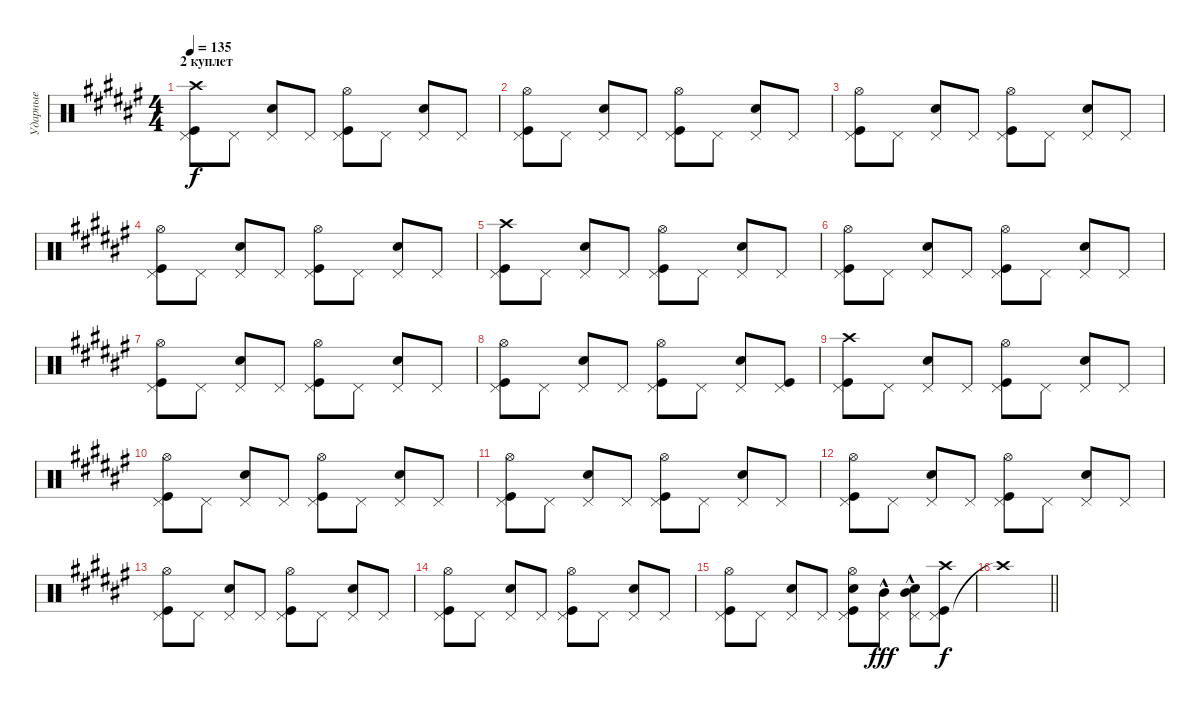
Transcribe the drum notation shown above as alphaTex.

\track ("Ударные" "Ударные") {instrument percussion}
\staff {score}
\articulation defaults
\ts (4 4)
\section ("" "2 куплет")
\tempo 135
\clef neutral
\ks d#minor
("Pedal Hi-Hat (hit)" "Kick (hit)" "Crash high (hit)").8{dy f} "Pedal Hi-Hat (hit)".8 ("Pedal Hi-Hat (hit)" "Snare (hit) 2").8 "Pedal Hi-Hat (hit)".8 ("Pedal Hi-Hat (hit)" "Kick (hit)" "Hi-Hat (open)").8 "Pedal Hi-Hat (hit)".8 ("Pedal Hi-Hat (hit)" "Snare (hit) 2").8 "Pedal Hi-Hat (hit)".8 |
("Pedal Hi-Hat (hit)" "Kick (hit)" "Hi-Hat (open)").8 "Pedal Hi-Hat (hit)".8 ("Pedal Hi-Hat (hit)" "Snare (hit) 2").8 "Pedal Hi-Hat (hit)".8 ("Pedal Hi-Hat (hit)" "Kick (hit)" "Hi-Hat (open)").8 "Pedal Hi-Hat (hit)".8 ("Pedal Hi-Hat (hit)" "Snare (hit) 2").8 "Pedal Hi-Hat (hit)".8 |
("Pedal Hi-Hat (hit)" "Kick (hit)" "Hi-Hat (open)").8 "Pedal Hi-Hat (hit)".8 ("Pedal Hi-Hat (hit)" "Snare (hit) 2").8 "Pedal Hi-Hat (hit)".8 ("Pedal Hi-Hat (hit)" "Kick (hit)" "Hi-Hat (open)").8 "Pedal Hi-Hat (hit)".8 ("Pedal Hi-Hat (hit)" "Snare (hit) 2").8 "Pedal Hi-Hat (hit)".8 |
("Pedal Hi-Hat (hit)" "Kick (hit)" "Hi-Hat (open)").8 "Pedal Hi-Hat (hit)".8 ("Pedal Hi-Hat (hit)" "Snare (hit) 2").8 "Pedal Hi-Hat (hit)".8 ("Pedal Hi-Hat (hit)" "Kick (hit)" "Hi-Hat (open)").8 "Pedal Hi-Hat (hit)".8 ("Pedal Hi-Hat (hit)" "Snare (hit) 2").8 "Pedal Hi-Hat (hit)".8 |
("Pedal Hi-Hat (hit)" "Kick (hit)" "Crash high (hit)").8 "Pedal Hi-Hat (hit)".8 ("Pedal Hi-Hat (hit)" "Snare (hit) 2").8 "Pedal Hi-Hat (hit)".8 ("Pedal Hi-Hat (hit)" "Kick (hit)" "Hi-Hat (open)").8 "Pedal Hi-Hat (hit)".8 ("Pedal Hi-Hat (hit)" "Snare (hit) 2").8 "Pedal Hi-Hat (hit)".8 |
("Pedal Hi-Hat (hit)" "Kick (hit)" "Hi-Hat (open)").8 "Pedal Hi-Hat (hit)".8 ("Pedal Hi-Hat (hit)" "Snare (hit) 2").8 "Pedal Hi-Hat (hit)".8 ("Pedal Hi-Hat (hit)" "Kick (hit)" "Hi-Hat (open)").8 "Pedal Hi-Hat (hit)".8 ("Pedal Hi-Hat (hit)" "Snare (hit) 2").8 "Pedal Hi-Hat (hit)".8 |
("Pedal Hi-Hat (hit)" "Kick (hit)" "Hi-Hat (open)").8 "Pedal Hi-Hat (hit)".8 ("Pedal Hi-Hat (hit)" "Snare (hit) 2").8 "Pedal Hi-Hat (hit)".8 ("Pedal Hi-Hat (hit)" "Kick (hit)" "Hi-Hat (open)").8 "Pedal Hi-Hat (hit)".8 ("Pedal Hi-Hat (hit)" "Snare (hit) 2").8 "Pedal Hi-Hat (hit)".8 |
("Pedal Hi-Hat (hit)" "Kick (hit)" "Hi-Hat (open)").8 "Pedal Hi-Hat (hit)".8 ("Pedal Hi-Hat (hit)" "Snare (hit) 2").8 "Pedal Hi-Hat (hit)".8 ("Pedal Hi-Hat (hit)" "Kick (hit)" "Hi-Hat (open)").8 "Pedal Hi-Hat (hit)".8 ("Pedal Hi-Hat (hit)" "Snare (hit) 2").8 ("Pedal Hi-Hat (hit)" "Kick (hit)").8 |
("Pedal Hi-Hat (hit)" "Kick (hit)" "Crash high (hit)").8 "Pedal Hi-Hat (hit)".8 ("Pedal Hi-Hat (hit)" "Snare (hit) 2").8 "Pedal Hi-Hat (hit)".8 ("Pedal Hi-Hat (hit)" "Kick (hit)" "Hi-Hat (open)").8 "Pedal Hi-Hat (hit)".8 ("Pedal Hi-Hat (hit)" "Snare (hit) 2").8 "Pedal Hi-Hat (hit)".8 |
("Pedal Hi-Hat (hit)" "Kick (hit)" "Hi-Hat (open)").8 "Pedal Hi-Hat (hit)".8 ("Pedal Hi-Hat (hit)" "Snare (hit) 2").8 "Pedal Hi-Hat (hit)".8 ("Pedal Hi-Hat (hit)" "Kick (hit)" "Hi-Hat (open)").8 "Pedal Hi-Hat (hit)".8 ("Pedal Hi-Hat (hit)" "Snare (hit) 2").8 "Pedal Hi-Hat (hit)".8 |
("Pedal Hi-Hat (hit)" "Kick (hit)" "Hi-Hat (open)").8 "Pedal Hi-Hat (hit)".8 ("Pedal Hi-Hat (hit)" "Snare (hit) 2").8 "Pedal Hi-Hat (hit)".8 ("Pedal Hi-Hat (hit)" "Kick (hit)" "Hi-Hat (open)").8 "Pedal Hi-Hat (hit)".8 ("Pedal Hi-Hat (hit)" "Snare (hit) 2").8 "Pedal Hi-Hat (hit)".8 |
("Pedal Hi-Hat (hit)" "Kick (hit)" "Hi-Hat (open)").8 "Pedal Hi-Hat (hit)".8 ("Pedal Hi-Hat (hit)" "Snare (hit) 2").8 "Pedal Hi-Hat (hit)".8 ("Pedal Hi-Hat (hit)" "Kick (hit)" "Hi-Hat (open)").8 "Pedal Hi-Hat (hit)".8 ("Pedal Hi-Hat (hit)" "Snare (hit) 2").8 "Pedal Hi-Hat (hit)".8 |
("Pedal Hi-Hat (hit)" "Kick (hit)" "Hi-Hat (open)").8 "Pedal Hi-Hat (hit)".8 ("Pedal Hi-Hat (hit)" "Snare (hit) 2").8 "Pedal Hi-Hat (hit)".8 ("Pedal Hi-Hat (hit)" "Kick (hit)" "Hi-Hat (open)").8 "Pedal Hi-Hat (hit)".8 ("Pedal Hi-Hat (hit)" "Snare (hit) 2").8 "Pedal Hi-Hat (hit)".8 |
("Pedal Hi-Hat (hit)" "Kick (hit)" "Hi-Hat (open)").8 "Pedal Hi-Hat (hit)".8 ("Pedal Hi-Hat (hit)" "Snare (hit) 2").8 "Pedal Hi-Hat (hit)".8 ("Pedal Hi-Hat (hit)" "Kick (hit)" "Hi-Hat (open)").8 "Pedal Hi-Hat (hit)".8 ("Pedal Hi-Hat (hit)" "Snare (hit) 2").8 "Pedal Hi-Hat (hit)".8 |
("Pedal Hi-Hat (hit)" "Kick (hit)" "Hi-Hat (open)").8 "Pedal Hi-Hat (hit)".8 ("Pedal Hi-Hat (hit)" "Snare (hit) 2").8 "Pedal Hi-Hat (hit)".8 ("Pedal Hi-Hat (hit)" "Kick (hit)" "Hi-Hat (open)" "Snare (hit) 2").8 ("Pedal Hi-Hat (hit)" "Mid Tom (hit)"{hac}).8{dy fff} ("Pedal Hi-Hat (hit)" "Snare (hit) 2" "Mid Tom (hit)"{hac}).8 ("Pedal Hi-Hat (hit)" "Crash high (hit)" "Kick (hit)").8{dy f} |
\barLineRight lightlight "Crash high (hit)"{t}.1
